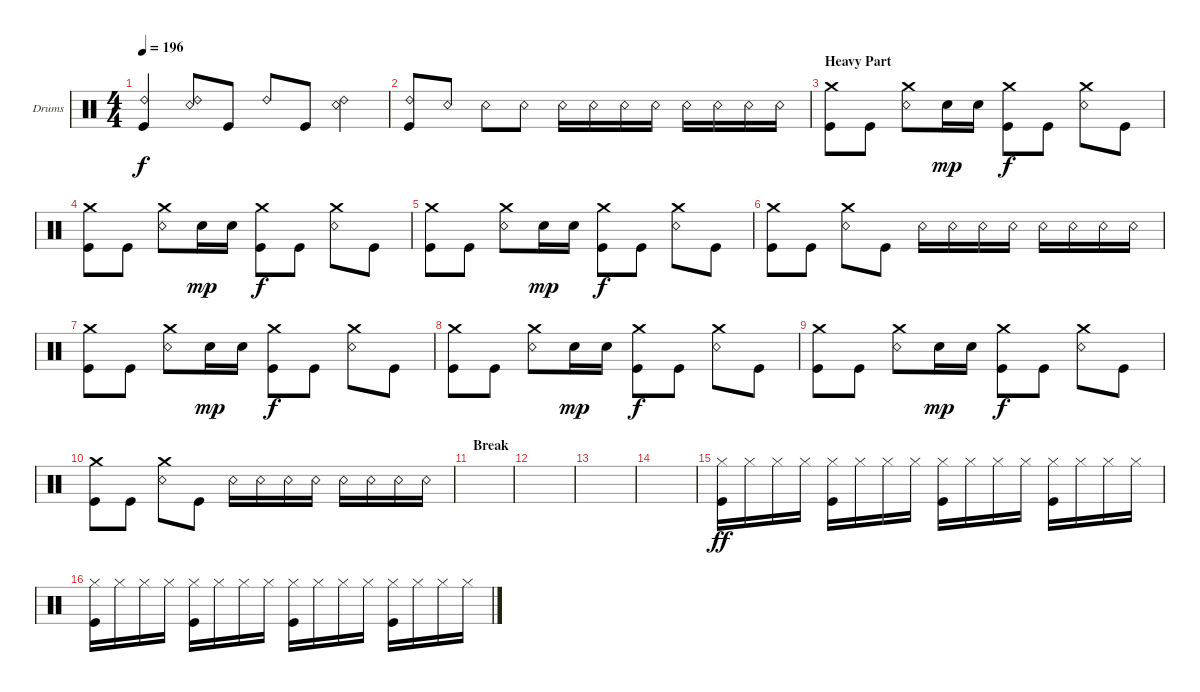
\defaultSystemsLayout 4
\bracketExtendMode groupsimilarinstruments
\firstSystemTrackNameOrientation horizontal
\otherSystemsTrackNameOrientation horizontal
\track ("Nao - Drums" "Drums") {instrument percussion}
\staff {score}
\articulation defaults
\ts (4 4)
\tempo 196
\clef neutral
\ks c
("Kick (hit)" "Ride (bell) 2").4{dy f} ("Snare (rim shot)" "Ride (bell) 2").8 "Kick (hit)".8 "Ride (bell) 2".8 "Kick (hit)".8 ("Snare (rim shot)" "Ride (bell) 2").4 |
("Kick (hit)" "Ride (bell) 2").8 "Snare (rim shot)".8 "Snare (rim shot)".8 "Snare (rim shot)".8 "Snare (rim shot)".16 "Snare (rim shot)".16 "Snare (rim shot)".16 "Snare (rim shot)".16 "Snare (rim shot)".16 "Snare (rim shot)".16 "Snare (rim shot)".16 "Snare (rim shot)".16 |
\section ("" "Heavy Part")
("Crash medium (hit)" "Kick (hit)").8 "Kick (hit)".8 ("Snare (rim shot)" "Crash medium (hit)").8 "Snare (hit) 2".16{dy mp} "Snare (hit) 2".16 ("Kick (hit)" "Crash medium (hit)").8{dy f} "Kick (hit)".8 ("Snare (rim shot)" "Crash medium (hit)").8 "Kick (hit)".8 |
("Crash medium (hit)" "Kick (hit)").8 "Kick (hit)".8 ("Snare (rim shot)" "Crash medium (hit)").8 "Snare (hit) 2".16{dy mp} "Snare (hit) 2".16 ("Kick (hit)" "Crash medium (hit)").8{dy f} "Kick (hit)".8 ("Snare (rim shot)" "Crash medium (hit)").8 "Kick (hit)".8 |
("Crash medium (hit)" "Kick (hit)").8 "Kick (hit)".8 ("Snare (rim shot)" "Crash medium (hit)").8 "Snare (hit) 2".16{dy mp} "Snare (hit) 2".16 ("Kick (hit)" "Crash medium (hit)").8{dy f} "Kick (hit)".8 ("Snare (rim shot)" "Crash medium (hit)").8 "Kick (hit)".8 |
("Crash medium (hit)" "Kick (hit)").8 "Kick (hit)".8 ("Snare (rim shot)" "Crash medium (hit)").8 "Kick (hit)".8 "Snare (rim shot)".16 "Snare (rim shot)".16 "Snare (rim shot)".16 "Snare (rim shot)".16 "Snare (rim shot)".16 "Snare (rim shot)".16 "Snare (rim shot)".16 "Snare (rim shot)".16 |
("Crash medium (hit)" "Kick (hit)").8 "Kick (hit)".8 ("Snare (rim shot)" "Crash medium (hit)").8 "Snare (hit) 2".16{dy mp} "Snare (hit) 2".16 ("Kick (hit)" "Crash medium (hit)").8{dy f} "Kick (hit)".8 ("Snare (rim shot)" "Crash medium (hit)").8 "Kick (hit)".8 |
("Crash medium (hit)" "Kick (hit)").8 "Kick (hit)".8 ("Snare (rim shot)" "Crash medium (hit)").8 "Snare (hit) 2".16{dy mp} "Snare (hit) 2".16 ("Kick (hit)" "Crash medium (hit)").8{dy f} "Kick (hit)".8 ("Snare (rim shot)" "Crash medium (hit)").8 "Kick (hit)".8 |
("Crash medium (hit)" "Kick (hit)").8 "Kick (hit)".8 ("Snare (rim shot)" "Crash medium (hit)").8 "Snare (hit) 2".16{dy mp} "Snare (hit) 2".16 ("Kick (hit)" "Crash medium (hit)").8{dy f} "Kick (hit)".8 ("Snare (rim shot)" "Crash medium (hit)").8 "Kick (hit)".8 |
("Crash medium (hit)" "Kick (hit)").8 "Kick (hit)".8 ("Snare (rim shot)" "Crash medium (hit)").8 "Kick (hit)".8 "Snare (rim shot)".16 "Snare (rim shot)".16 "Snare (rim shot)".16 "Snare (rim shot)".16 "Snare (rim shot)".16 "Snare (rim shot)".16 "Snare (rim shot)".16 "Snare (rim shot)".16 |
\section ("" "Break")
|
|
|
|
("Hi-Hat (closed)" "Kick (hit)").16{dy ff} "Hi-Hat (closed)".16 "Hi-Hat (closed)".16 "Hi-Hat (closed)".16 ("Hi-Hat (closed)" "Kick (hit)").16 "Hi-Hat (closed)".16 "Hi-Hat (closed)".16 "Hi-Hat (closed)".16 ("Hi-Hat (closed)" "Kick (hit)").16 "Hi-Hat (closed)".16 "Hi-Hat (closed)".16 "Hi-Hat (closed)".16 ("Hi-Hat (closed)" "Kick (hit)").16 "Hi-Hat (closed)".16 "Hi-Hat (closed)".16 "Hi-Hat (closed)".16 |
("Hi-Hat (closed)" "Kick (hit)").16 "Hi-Hat (closed)".16 "Hi-Hat (closed)".16 "Hi-Hat (closed)".16 ("Hi-Hat (closed)" "Kick (hit)").16 "Hi-Hat (closed)".16 "Hi-Hat (closed)".16 "Hi-Hat (closed)".16 ("Hi-Hat (closed)" "Kick (hit)").16 "Hi-Hat (closed)".16 "Hi-Hat (closed)".16 "Hi-Hat (closed)".16 ("Hi-Hat (closed)" "Kick (hit)").16 "Hi-Hat (closed)".16 "Hi-Hat (closed)".16 "Hi-Hat (closed)".16
